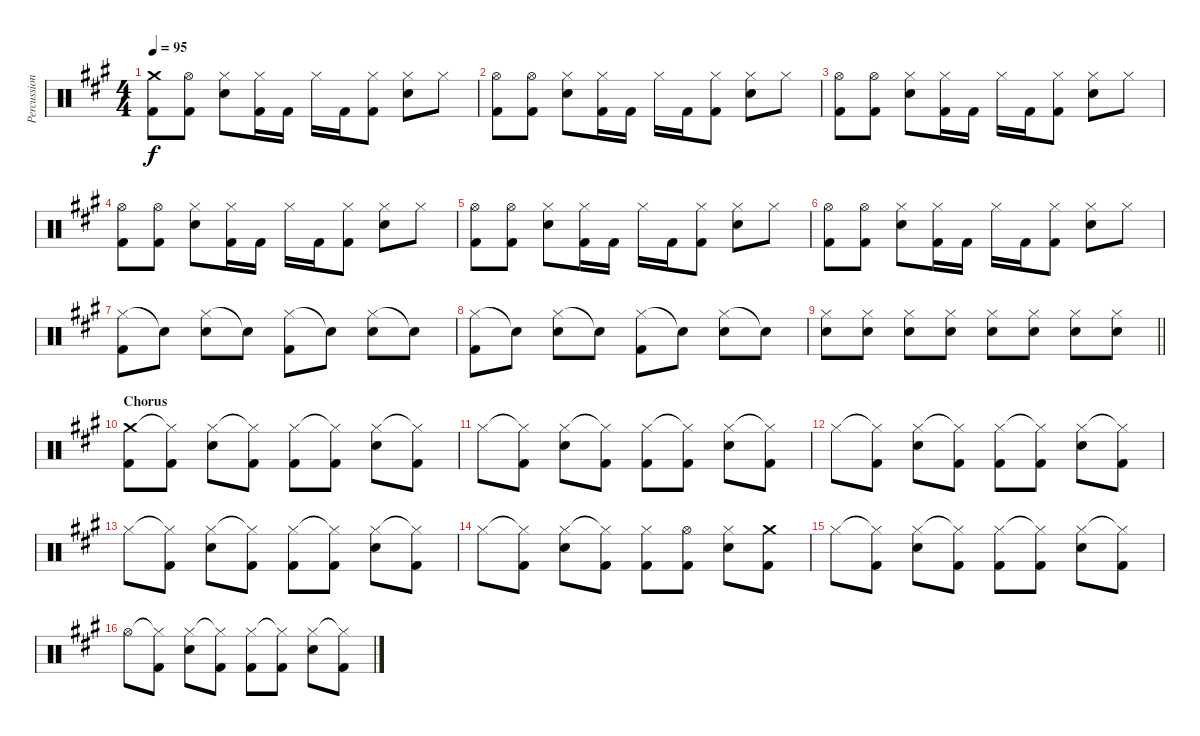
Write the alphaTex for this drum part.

\track ("Percussion" "Percussion") {instrument percussion}
\staff {score}
\articulation defaults
\ts (4 4)
\tempo 95
\clef neutral
\ks a
("Crash medium (hit)" "Kick (hit) 2").8{dy f} ("Hi-Hat (open)" "Kick (hit) 2").8 ("Hi-Hat (closed)" "Electric Snare (hit)").8 ("Hi-Hat (closed)" "Kick (hit) 2").16 "Kick (hit) 2".16 "Hi-Hat (closed)".16 "Kick (hit) 2".16 ("Hi-Hat (closed)" "Kick (hit) 2").8 ("Hi-Hat (closed)" "Electric Snare (hit)").8 "Hi-Hat (closed)".8 |
("Hi-Hat (open)" "Kick (hit) 2").8 ("Hi-Hat (open)" "Kick (hit) 2").8 ("Hi-Hat (closed)" "Electric Snare (hit)").8 ("Hi-Hat (closed)" "Kick (hit) 2").16 "Kick (hit) 2".16 "Hi-Hat (closed)".16 "Kick (hit) 2".16 ("Hi-Hat (closed)" "Kick (hit) 2").8 ("Hi-Hat (closed)" "Electric Snare (hit)").8 "Hi-Hat (closed)".8 |
("Hi-Hat (open)" "Kick (hit) 2").8 ("Hi-Hat (open)" "Kick (hit) 2").8 ("Hi-Hat (closed)" "Electric Snare (hit)").8 ("Hi-Hat (closed)" "Kick (hit) 2").16 "Kick (hit) 2".16 "Hi-Hat (closed)".16 "Kick (hit) 2".16 ("Hi-Hat (closed)" "Kick (hit) 2").8 ("Hi-Hat (closed)" "Electric Snare (hit)").8 "Hi-Hat (closed)".8 |
("Hi-Hat (open)" "Kick (hit) 2").8 ("Hi-Hat (open)" "Kick (hit) 2").8 ("Hi-Hat (closed)" "Electric Snare (hit)").8 ("Hi-Hat (closed)" "Kick (hit) 2").16 "Kick (hit) 2".16 "Hi-Hat (closed)".16 "Kick (hit) 2".16 ("Hi-Hat (closed)" "Kick (hit) 2").8 ("Hi-Hat (closed)" "Electric Snare (hit)").8 "Hi-Hat (closed)".8 |
("Hi-Hat (open)" "Kick (hit) 2").8 ("Hi-Hat (open)" "Kick (hit) 2").8 ("Hi-Hat (closed)" "Electric Snare (hit)").8 ("Hi-Hat (closed)" "Kick (hit) 2").16 "Kick (hit) 2".16 "Hi-Hat (closed)".16 "Kick (hit) 2".16 ("Hi-Hat (closed)" "Kick (hit) 2").8 ("Hi-Hat (closed)" "Electric Snare (hit)").8 "Hi-Hat (closed)".8 |
("Hi-Hat (open)" "Kick (hit) 2").8 ("Hi-Hat (open)" "Kick (hit) 2").8 ("Hi-Hat (closed)" "Electric Snare (hit)").8 ("Hi-Hat (closed)" "Kick (hit) 2").16 "Kick (hit) 2".16 "Hi-Hat (closed)".16 "Kick (hit) 2".16 ("Hi-Hat (closed)" "Kick (hit) 2").8 ("Hi-Hat (closed)" "Electric Snare (hit)").8 "Hi-Hat (closed)".8 |
("Hi-Hat (closed)" "Kick (hit) 2").8 "Snare (hit)"{t}.8 ("Hi-Hat (closed)" "Electric Snare (hit)").8 "Snare (hit)"{t}.8 ("Hi-Hat (closed)" "Kick (hit) 2").8 "Snare (hit)"{t}.8 ("Hi-Hat (closed)" "Electric Snare (hit)").8 "Snare (hit)"{t}.8 |
("Hi-Hat (closed)" "Kick (hit) 2").8 "Snare (hit)"{t}.8 ("Hi-Hat (closed)" "Electric Snare (hit)").8 "Snare (hit)"{t}.8 ("Hi-Hat (closed)" "Kick (hit) 2").8 "Snare (hit)"{t}.8 ("Hi-Hat (closed)" "Electric Snare (hit)").8 "Snare (hit)"{t}.8{volume 9} |
\barLineRight lightlight
("Hi-Hat (closed)" "Electric Snare (hit)").8{volume 13} ("Hi-Hat (closed)" "Electric Snare (hit)").8 ("Hi-Hat (closed)" "Electric Snare (hit)").8 ("Hi-Hat (closed)" "Electric Snare (hit)").8 ("Hi-Hat (closed)" "Electric Snare (hit)").8 ("Hi-Hat (closed)" "Electric Snare (hit)").8 ("Hi-Hat (closed)" "Electric Snare (hit)").8 ("Hi-Hat (closed)" "Electric Snare (hit)").8 |
\section ("" "Chorus")
("Crash medium (hit)" "Kick (hit) 2").8 ("Hi-Hat (closed)"{t} "Kick (hit) 2").8 ("Hi-Hat (closed)" "Electric Snare (hit)").8 ("Hi-Hat (closed)"{t} "Kick (hit) 2").8 ("Hi-Hat (closed)" "Kick (hit) 2").8 ("Hi-Hat (closed)"{t} "Kick (hit) 2").8 ("Hi-Hat (closed)" "Electric Snare (hit)").8 ("Hi-Hat (closed)"{t} "Kick (hit) 2").8 |
"Hi-Hat (closed)".8 ("Hi-Hat (closed)"{t} "Kick (hit) 2").8 ("Hi-Hat (closed)" "Electric Snare (hit)").8 ("Hi-Hat (closed)"{t} "Kick (hit) 2").8 ("Hi-Hat (closed)" "Kick (hit) 2").8 ("Hi-Hat (closed)"{t} "Kick (hit) 2").8 ("Hi-Hat (closed)" "Electric Snare (hit)").8 ("Hi-Hat (closed)"{t} "Kick (hit) 2").8 |
"Hi-Hat (closed)".8 ("Hi-Hat (closed)"{t} "Kick (hit) 2").8 ("Hi-Hat (closed)" "Electric Snare (hit)").8 ("Hi-Hat (closed)"{t} "Kick (hit) 2").8 ("Hi-Hat (closed)" "Kick (hit) 2").8 ("Hi-Hat (closed)"{t} "Kick (hit) 2").8 ("Hi-Hat (closed)" "Electric Snare (hit)").8 ("Hi-Hat (closed)"{t} "Kick (hit) 2").8 |
"Hi-Hat (closed)".8 ("Hi-Hat (closed)"{t} "Kick (hit) 2").8 ("Hi-Hat (closed)" "Electric Snare (hit)").8 ("Hi-Hat (closed)"{t} "Kick (hit) 2").8 ("Hi-Hat (closed)" "Kick (hit) 2").8 ("Hi-Hat (closed)"{t} "Kick (hit) 2").8 ("Hi-Hat (closed)" "Electric Snare (hit)").8 ("Hi-Hat (closed)"{t} "Kick (hit) 2").8 |
"Hi-Hat (closed)".8 ("Hi-Hat (closed)"{t} "Kick (hit) 2").8 ("Hi-Hat (closed)" "Electric Snare (hit)").8 ("Hi-Hat (closed)"{t} "Kick (hit) 2").8 ("Hi-Hat (closed)" "Kick (hit) 2").8 ("Hi-Hat (open)" "Kick (hit) 2").8 ("Hi-Hat (closed)" "Electric Snare (hit)").8 ("Crash medium (hit)" "Kick (hit) 2").8 |
"Hi-Hat (closed)".8 ("Hi-Hat (closed)"{t} "Kick (hit) 2").8 ("Hi-Hat (closed)" "Electric Snare (hit)").8 ("Hi-Hat (closed)"{t} "Kick (hit) 2").8 ("Hi-Hat (closed)" "Kick (hit) 2").8 ("Hi-Hat (closed)"{t} "Kick (hit) 2").8 ("Hi-Hat (closed)" "Electric Snare (hit)").8 ("Hi-Hat (closed)"{t} "Kick (hit) 2").8 |
"Hi-Hat (open)".8 ("Hi-Hat (closed)"{t} "Kick (hit) 2").8 ("Hi-Hat (closed)" "Electric Snare (hit)").8 ("Hi-Hat (closed)"{t} "Kick (hit) 2").8 ("Hi-Hat (closed)" "Kick (hit) 2").8 ("Hi-Hat (closed)"{t} "Kick (hit) 2").8 ("Hi-Hat (closed)" "Electric Snare (hit)").8 ("Hi-Hat (closed)"{t} "Kick (hit) 2").8
